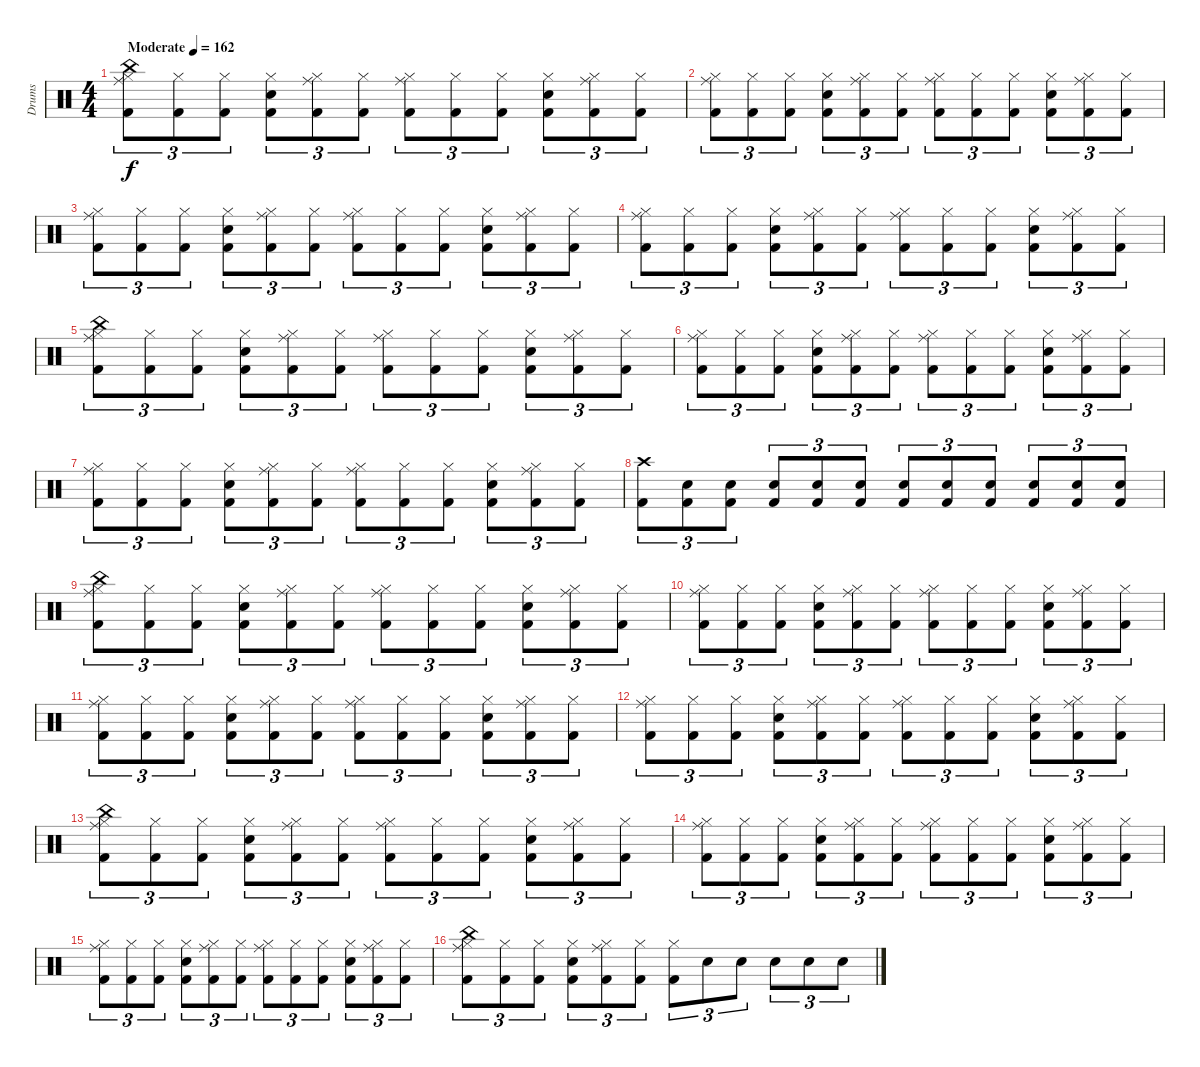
\track ("Drums" "Drums") {instrument percussion}
\staff {score}
\articulation defaults
\ts (4 4)
\tempo (162 "Moderate")
\clef neutral
\ks c
("Kick (hit) 2" "Ride (middle)" "China (hit)" "Hi-Hat (closed)").8{tu (3 2) dy f} ("Kick (hit) 2" "Hi-Hat (closed)").8{tu (3 2)} ("Kick (hit) 2" "Hi-Hat (closed)").8{tu (3 2)} ("Kick (hit) 2" "Electric Snare (hit)" "Hi-Hat (closed)").8{tu (3 2)} ("Kick (hit) 2" "Ride (middle)" "Hi-Hat (closed)").8{tu (3 2)} ("Kick (hit) 2" "Hi-Hat (closed)").8{tu (3 2)} ("Kick (hit) 2" "Ride (middle)" "Hi-Hat (closed)").8{tu (3 2)} ("Kick (hit) 2" "Hi-Hat (closed)").8{tu (3 2)} ("Kick (hit) 2" "Hi-Hat (closed)").8{tu (3 2)} ("Kick (hit) 2" "Electric Snare (hit)" "Hi-Hat (closed)").8{tu (3 2)} ("Kick (hit) 2" "Ride (middle)" "Hi-Hat (closed)").8{tu (3 2)} ("Kick (hit) 2" "Hi-Hat (closed)").8{tu (3 2)} |
("Kick (hit) 2" "Ride (middle)" "Hi-Hat (closed)").8{tu (3 2)} ("Kick (hit) 2" "Hi-Hat (closed)").8{tu (3 2)} ("Kick (hit) 2" "Hi-Hat (closed)").8{tu (3 2)} ("Kick (hit) 2" "Electric Snare (hit)" "Hi-Hat (closed)").8{tu (3 2)} ("Kick (hit) 2" "Ride (middle)" "Hi-Hat (closed)").8{tu (3 2)} ("Kick (hit) 2" "Hi-Hat (closed)").8{tu (3 2)} ("Kick (hit) 2" "Ride (middle)" "Hi-Hat (closed)").8{tu (3 2)} ("Kick (hit) 2" "Hi-Hat (closed)").8{tu (3 2)} ("Kick (hit) 2" "Hi-Hat (closed)").8{tu (3 2)} ("Kick (hit) 2" "Electric Snare (hit)" "Hi-Hat (closed)").8{tu (3 2)} ("Kick (hit) 2" "Ride (middle)" "Hi-Hat (closed)").8{tu (3 2)} ("Kick (hit) 2" "Hi-Hat (closed)").8{tu (3 2)} |
("Kick (hit) 2" "Ride (middle)" "Hi-Hat (closed)").8{tu (3 2)} ("Kick (hit) 2" "Hi-Hat (closed)").8{tu (3 2)} ("Kick (hit) 2" "Hi-Hat (closed)").8{tu (3 2)} ("Kick (hit) 2" "Electric Snare (hit)" "Hi-Hat (closed)").8{tu (3 2)} ("Kick (hit) 2" "Ride (middle)" "Hi-Hat (closed)").8{tu (3 2)} ("Kick (hit) 2" "Hi-Hat (closed)").8{tu (3 2)} ("Kick (hit) 2" "Ride (middle)" "Hi-Hat (closed)").8{tu (3 2)} ("Kick (hit) 2" "Hi-Hat (closed)").8{tu (3 2)} ("Kick (hit) 2" "Hi-Hat (closed)").8{tu (3 2)} ("Kick (hit) 2" "Electric Snare (hit)" "Hi-Hat (closed)").8{tu (3 2)} ("Kick (hit) 2" "Ride (middle)" "Hi-Hat (closed)").8{tu (3 2)} ("Kick (hit) 2" "Hi-Hat (closed)").8{tu (3 2)} |
("Kick (hit) 2" "Ride (middle)" "Hi-Hat (closed)").8{tu (3 2)} ("Kick (hit) 2" "Hi-Hat (closed)").8{tu (3 2)} ("Kick (hit) 2" "Hi-Hat (closed)").8{tu (3 2)} ("Kick (hit) 2" "Electric Snare (hit)" "Hi-Hat (closed)").8{tu (3 2)} ("Kick (hit) 2" "Ride (middle)" "Hi-Hat (closed)").8{tu (3 2)} ("Kick (hit) 2" "Hi-Hat (closed)").8{tu (3 2)} ("Kick (hit) 2" "Ride (middle)" "Hi-Hat (closed)").8{tu (3 2)} ("Kick (hit) 2" "Hi-Hat (closed)").8{tu (3 2)} ("Kick (hit) 2" "Hi-Hat (closed)").8{tu (3 2)} ("Kick (hit) 2" "Electric Snare (hit)" "Hi-Hat (closed)").8{tu (3 2)} ("Kick (hit) 2" "Ride (middle)" "Hi-Hat (closed)").8{tu (3 2)} ("Kick (hit) 2" "Hi-Hat (closed)").8{tu (3 2)} |
("Kick (hit) 2" "Ride (middle)" "China (hit)" "Hi-Hat (closed)").8{tu (3 2)} ("Kick (hit) 2" "Hi-Hat (closed)").8{tu (3 2)} ("Kick (hit) 2" "Hi-Hat (closed)").8{tu (3 2)} ("Kick (hit) 2" "Electric Snare (hit)" "Hi-Hat (closed)").8{tu (3 2)} ("Kick (hit) 2" "Ride (middle)" "Hi-Hat (closed)").8{tu (3 2)} ("Kick (hit) 2" "Hi-Hat (closed)").8{tu (3 2)} ("Kick (hit) 2" "Ride (middle)" "Hi-Hat (closed)").8{tu (3 2)} ("Kick (hit) 2" "Hi-Hat (closed)").8{tu (3 2)} ("Kick (hit) 2" "Hi-Hat (closed)").8{tu (3 2)} ("Kick (hit) 2" "Electric Snare (hit)" "Hi-Hat (closed)").8{tu (3 2)} ("Kick (hit) 2" "Ride (middle)" "Hi-Hat (closed)").8{tu (3 2)} ("Kick (hit) 2" "Hi-Hat (closed)").8{tu (3 2)} |
("Kick (hit) 2" "Ride (middle)" "Hi-Hat (closed)").8{tu (3 2)} ("Kick (hit) 2" "Hi-Hat (closed)").8{tu (3 2)} ("Kick (hit) 2" "Hi-Hat (closed)").8{tu (3 2)} ("Kick (hit) 2" "Electric Snare (hit)" "Hi-Hat (closed)").8{tu (3 2)} ("Kick (hit) 2" "Ride (middle)" "Hi-Hat (closed)").8{tu (3 2)} ("Kick (hit) 2" "Hi-Hat (closed)").8{tu (3 2)} ("Kick (hit) 2" "Ride (middle)" "Hi-Hat (closed)").8{tu (3 2)} ("Kick (hit) 2" "Hi-Hat (closed)").8{tu (3 2)} ("Kick (hit) 2" "Hi-Hat (closed)").8{tu (3 2)} ("Kick (hit) 2" "Electric Snare (hit)" "Hi-Hat (closed)").8{tu (3 2)} ("Kick (hit) 2" "Ride (middle)" "Hi-Hat (closed)").8{tu (3 2)} ("Kick (hit) 2" "Hi-Hat (closed)").8{tu (3 2)} |
("Kick (hit) 2" "Ride (middle)" "Hi-Hat (closed)").8{tu (3 2)} ("Kick (hit) 2" "Hi-Hat (closed)").8{tu (3 2)} ("Kick (hit) 2" "Hi-Hat (closed)").8{tu (3 2)} ("Kick (hit) 2" "Electric Snare (hit)" "Hi-Hat (closed)").8{tu (3 2)} ("Kick (hit) 2" "Ride (middle)" "Hi-Hat (closed)").8{tu (3 2)} ("Kick (hit) 2" "Hi-Hat (closed)").8{tu (3 2)} ("Kick (hit) 2" "Ride (middle)" "Hi-Hat (closed)").8{tu (3 2)} ("Kick (hit) 2" "Hi-Hat (closed)").8{tu (3 2)} ("Kick (hit) 2" "Hi-Hat (closed)").8{tu (3 2)} ("Kick (hit) 2" "Electric Snare (hit)" "Hi-Hat (closed)").8{tu (3 2)} ("Kick (hit) 2" "Ride (middle)" "Hi-Hat (closed)").8{tu (3 2)} ("Kick (hit) 2" "Hi-Hat (closed)").8{tu (3 2)} |
("Kick (hit) 2" "Crash high (hit)").8{tu (3 2)} ("Kick (hit) 2" "Electric Snare (hit)").8{tu (3 2)} ("Kick (hit) 2" "Electric Snare (hit)").8{tu (3 2)} ("Kick (hit) 2" "Electric Snare (hit)").8{tu (3 2)} ("Kick (hit) 2" "Electric Snare (hit)").8{tu (3 2)} ("Kick (hit) 2" "Electric Snare (hit)").8{tu (3 2)} ("Kick (hit) 2" "Electric Snare (hit)").8{tu (3 2)} ("Kick (hit) 2" "Electric Snare (hit)").8{tu (3 2)} ("Kick (hit) 2" "Electric Snare (hit)").8{tu (3 2)} ("Kick (hit) 2" "Electric Snare (hit)").8{tu (3 2)} ("Kick (hit) 2" "Electric Snare (hit)").8{tu (3 2)} ("Kick (hit) 2" "Electric Snare (hit)").8{tu (3 2)} |
("Kick (hit) 2" "Ride (middle)" "China (hit)" "Hi-Hat (closed)").8{tu (3 2)} ("Kick (hit) 2" "Hi-Hat (closed)").8{tu (3 2)} ("Kick (hit) 2" "Hi-Hat (closed)").8{tu (3 2)} ("Kick (hit) 2" "Electric Snare (hit)" "Hi-Hat (closed)").8{tu (3 2)} ("Kick (hit) 2" "Ride (middle)" "Hi-Hat (closed)").8{tu (3 2)} ("Kick (hit) 2" "Hi-Hat (closed)").8{tu (3 2)} ("Kick (hit) 2" "Ride (middle)" "Hi-Hat (closed)").8{tu (3 2)} ("Kick (hit) 2" "Hi-Hat (closed)").8{tu (3 2)} ("Kick (hit) 2" "Hi-Hat (closed)").8{tu (3 2)} ("Kick (hit) 2" "Electric Snare (hit)" "Hi-Hat (closed)").8{tu (3 2)} ("Kick (hit) 2" "Ride (middle)" "Hi-Hat (closed)").8{tu (3 2)} ("Kick (hit) 2" "Hi-Hat (closed)").8{tu (3 2)} |
("Kick (hit) 2" "Ride (middle)" "Hi-Hat (closed)").8{tu (3 2)} ("Kick (hit) 2" "Hi-Hat (closed)").8{tu (3 2)} ("Kick (hit) 2" "Hi-Hat (closed)").8{tu (3 2)} ("Kick (hit) 2" "Electric Snare (hit)" "Hi-Hat (closed)").8{tu (3 2)} ("Kick (hit) 2" "Ride (middle)" "Hi-Hat (closed)").8{tu (3 2)} ("Kick (hit) 2" "Hi-Hat (closed)").8{tu (3 2)} ("Kick (hit) 2" "Ride (middle)" "Hi-Hat (closed)").8{tu (3 2)} ("Kick (hit) 2" "Hi-Hat (closed)").8{tu (3 2)} ("Kick (hit) 2" "Hi-Hat (closed)").8{tu (3 2)} ("Kick (hit) 2" "Electric Snare (hit)" "Hi-Hat (closed)").8{tu (3 2)} ("Kick (hit) 2" "Ride (middle)" "Hi-Hat (closed)").8{tu (3 2)} ("Kick (hit) 2" "Hi-Hat (closed)").8{tu (3 2)} |
("Kick (hit) 2" "Ride (middle)" "Hi-Hat (closed)").8{tu (3 2)} ("Kick (hit) 2" "Hi-Hat (closed)").8{tu (3 2)} ("Kick (hit) 2" "Hi-Hat (closed)").8{tu (3 2)} ("Kick (hit) 2" "Electric Snare (hit)" "Hi-Hat (closed)").8{tu (3 2)} ("Kick (hit) 2" "Ride (middle)" "Hi-Hat (closed)").8{tu (3 2)} ("Kick (hit) 2" "Hi-Hat (closed)").8{tu (3 2)} ("Kick (hit) 2" "Ride (middle)" "Hi-Hat (closed)").8{tu (3 2)} ("Kick (hit) 2" "Hi-Hat (closed)").8{tu (3 2)} ("Kick (hit) 2" "Hi-Hat (closed)").8{tu (3 2)} ("Kick (hit) 2" "Electric Snare (hit)" "Hi-Hat (closed)").8{tu (3 2)} ("Kick (hit) 2" "Ride (middle)" "Hi-Hat (closed)").8{tu (3 2)} ("Kick (hit) 2" "Hi-Hat (closed)").8{tu (3 2)} |
("Kick (hit) 2" "Ride (middle)" "Hi-Hat (closed)").8{tu (3 2)} ("Kick (hit) 2" "Hi-Hat (closed)").8{tu (3 2)} ("Kick (hit) 2" "Hi-Hat (closed)").8{tu (3 2)} ("Kick (hit) 2" "Electric Snare (hit)" "Hi-Hat (closed)").8{tu (3 2)} ("Kick (hit) 2" "Ride (middle)" "Hi-Hat (closed)").8{tu (3 2)} ("Kick (hit) 2" "Hi-Hat (closed)").8{tu (3 2)} ("Kick (hit) 2" "Ride (middle)" "Hi-Hat (closed)").8{tu (3 2)} ("Kick (hit) 2" "Hi-Hat (closed)").8{tu (3 2)} ("Kick (hit) 2" "Hi-Hat (closed)").8{tu (3 2)} ("Kick (hit) 2" "Electric Snare (hit)" "Hi-Hat (closed)").8{tu (3 2)} ("Kick (hit) 2" "Ride (middle)" "Hi-Hat (closed)").8{tu (3 2)} ("Kick (hit) 2" "Hi-Hat (closed)").8{tu (3 2)} |
("Kick (hit) 2" "Ride (middle)" "China (hit)" "Hi-Hat (closed)").8{tu (3 2)} ("Kick (hit) 2" "Hi-Hat (closed)").8{tu (3 2)} ("Kick (hit) 2" "Hi-Hat (closed)").8{tu (3 2)} ("Kick (hit) 2" "Electric Snare (hit)" "Hi-Hat (closed)").8{tu (3 2)} ("Kick (hit) 2" "Ride (middle)" "Hi-Hat (closed)").8{tu (3 2)} ("Kick (hit) 2" "Hi-Hat (closed)").8{tu (3 2)} ("Kick (hit) 2" "Ride (middle)" "Hi-Hat (closed)").8{tu (3 2)} ("Kick (hit) 2" "Hi-Hat (closed)").8{tu (3 2)} ("Kick (hit) 2" "Hi-Hat (closed)").8{tu (3 2)} ("Kick (hit) 2" "Electric Snare (hit)" "Hi-Hat (closed)").8{tu (3 2)} ("Kick (hit) 2" "Ride (middle)" "Hi-Hat (closed)").8{tu (3 2)} ("Kick (hit) 2" "Hi-Hat (closed)").8{tu (3 2)} |
("Kick (hit) 2" "Ride (middle)" "Hi-Hat (closed)").8{tu (3 2)} ("Kick (hit) 2" "Hi-Hat (closed)").8{tu (3 2)} ("Kick (hit) 2" "Hi-Hat (closed)").8{tu (3 2)} ("Kick (hit) 2" "Electric Snare (hit)" "Hi-Hat (closed)").8{tu (3 2)} ("Kick (hit) 2" "Ride (middle)" "Hi-Hat (closed)").8{tu (3 2)} ("Kick (hit) 2" "Hi-Hat (closed)").8{tu (3 2)} ("Kick (hit) 2" "Ride (middle)" "Hi-Hat (closed)").8{tu (3 2)} ("Kick (hit) 2" "Hi-Hat (closed)").8{tu (3 2)} ("Kick (hit) 2" "Hi-Hat (closed)").8{tu (3 2)} ("Kick (hit) 2" "Electric Snare (hit)" "Hi-Hat (closed)").8{tu (3 2)} ("Kick (hit) 2" "Ride (middle)" "Hi-Hat (closed)").8{tu (3 2)} ("Kick (hit) 2" "Hi-Hat (closed)").8{tu (3 2)} |
("Kick (hit) 2" "Ride (middle)" "Hi-Hat (closed)").8{tu (3 2)} ("Kick (hit) 2" "Hi-Hat (closed)").8{tu (3 2)} ("Kick (hit) 2" "Hi-Hat (closed)").8{tu (3 2)} ("Kick (hit) 2" "Electric Snare (hit)" "Hi-Hat (closed)").8{tu (3 2)} ("Kick (hit) 2" "Ride (middle)" "Hi-Hat (closed)").8{tu (3 2)} ("Kick (hit) 2" "Hi-Hat (closed)").8{tu (3 2)} ("Kick (hit) 2" "Ride (middle)" "Hi-Hat (closed)").8{tu (3 2)} ("Kick (hit) 2" "Hi-Hat (closed)").8{tu (3 2)} ("Kick (hit) 2" "Hi-Hat (closed)").8{tu (3 2)} ("Kick (hit) 2" "Electric Snare (hit)" "Hi-Hat (closed)").8{tu (3 2)} ("Kick (hit) 2" "Ride (middle)" "Hi-Hat (closed)").8{tu (3 2)} ("Kick (hit) 2" "Hi-Hat (closed)").8{tu (3 2)} |
("Kick (hit) 2" "Ride (middle)" "China (hit)" "Hi-Hat (closed)").8{tu (3 2)} ("Kick (hit) 2" "Hi-Hat (closed)").8{tu (3 2)} ("Kick (hit) 2" "Hi-Hat (closed)").8{tu (3 2)} ("Kick (hit) 2" "Electric Snare (hit)" "Hi-Hat (closed)").8{tu (3 2)} ("Kick (hit) 2" "Ride (middle)" "Hi-Hat (closed)").8{tu (3 2)} ("Kick (hit) 2" "Hi-Hat (closed)").8{tu (3 2)} ("Kick (hit) 2" "Hi-Hat (closed)").8{tu (3 2)} "Electric Snare (hit)".8{tu (3 2)} "Electric Snare (hit)".8{tu (3 2)} "Electric Snare (hit)".8{tu (3 2)} "Electric Snare (hit)".8{tu (3 2)} "Electric Snare (hit)".8{tu (3 2)}
